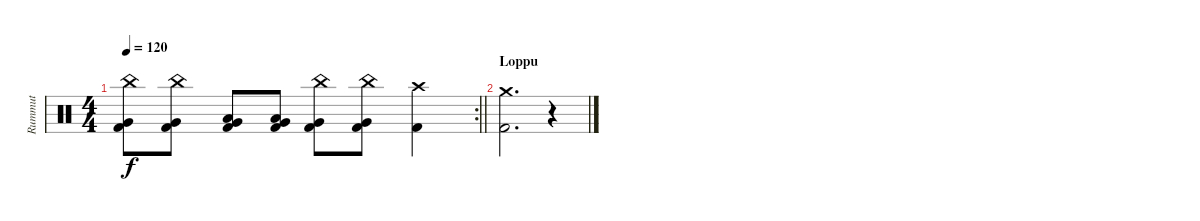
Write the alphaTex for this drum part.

\track ("Rummut" "Rummut") {instrument percussion}
\staff {score}
\articulation defaults
\rc 2
\ts (4 4)
\tempo 120
\clef neutral
\barLineRight lightlight
\ks c
("China (hit)" "Very Low Tom (hit)" "Kick (hit) 2").8{dy f} ("China (hit)" "Very Low Tom (hit)" "Kick (hit) 2").8 ("Low Floor Tom (hit)" "Very Low Tom (hit)" "Kick (hit) 2").8 ("Low Floor Tom (hit)" "Very Low Tom (hit)" "Kick (hit) 2").8 ("China (hit)" "Very Low Tom (hit)" "Kick (hit) 2").8 ("China (hit)" "Very Low Tom (hit)" "Kick (hit) 2").8 ("Crash high (hit)" "Kick (hit) 2").4 |
\section ("" "Loppu")
("Crash medium (hit)" "Kick (hit) 2").2{d} r.4
